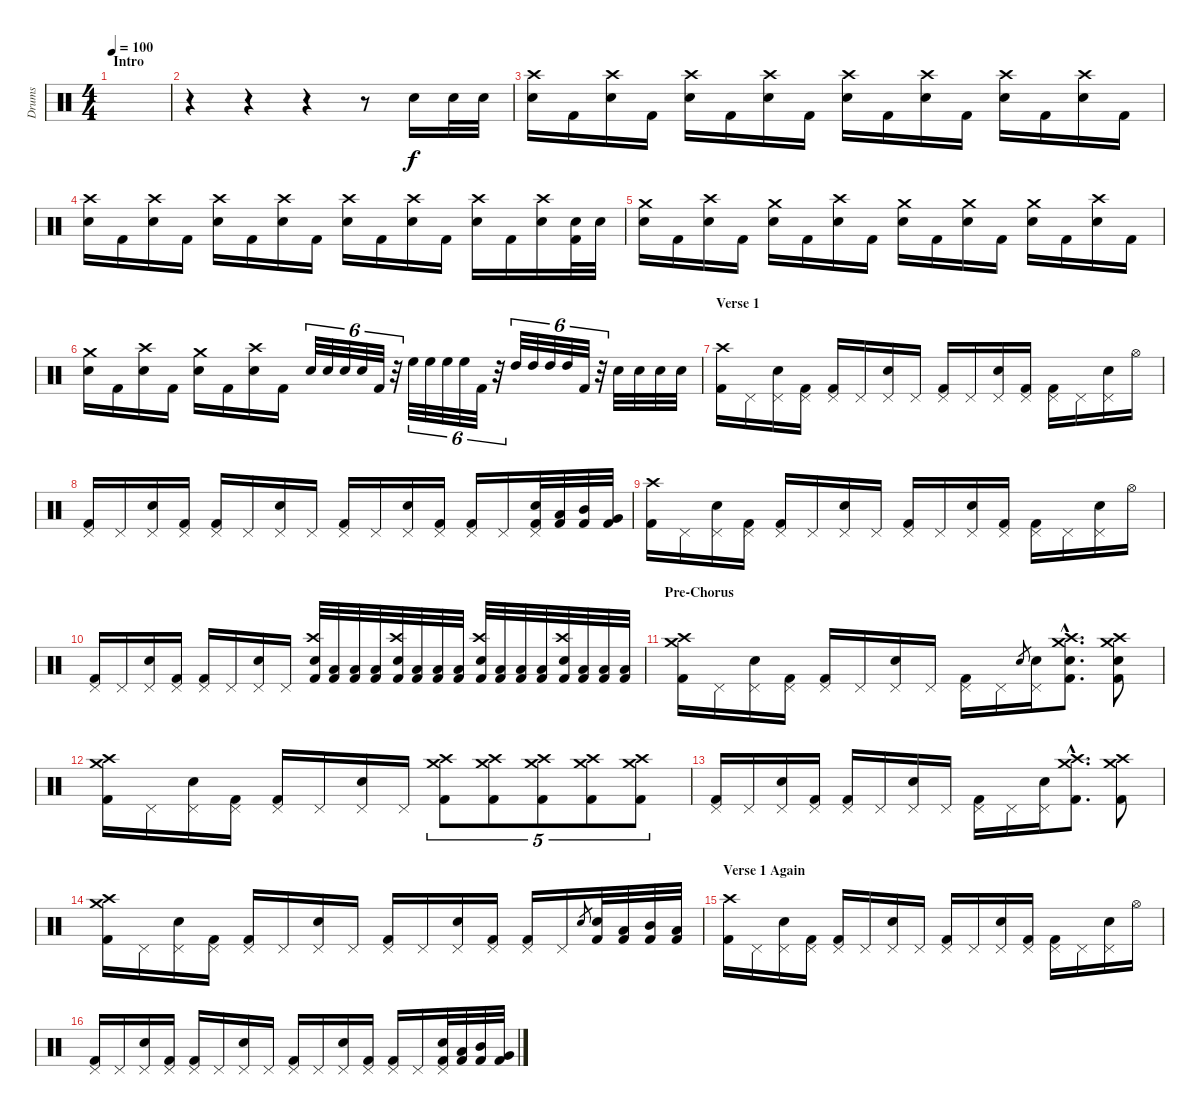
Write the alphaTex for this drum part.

\track ("Drums" "Drums") {instrument percussion}
\staff {score}
\articulation defaults
\ts (4 4)
\section ("" "Intro")
\tempo 100
\clef neutral
\ks c
|
r.4 r.4 r.4 r.8 "Electric Snare (hit)".16 "Electric Snare (hit)".32 "Electric Snare (hit)".32 |
("Crash high (hit)" "Electric Snare (hit)").16 "Kick (hit) 2".16 ("Crash high (hit)" "Electric Snare (hit)").16 "Kick (hit) 2".16 ("Crash high (hit)" "Electric Snare (hit)").16 "Kick (hit) 2".16 ("Crash high (hit)" "Electric Snare (hit)").16 "Kick (hit) 2".16 ("Crash high (hit)" "Electric Snare (hit)").16 "Kick (hit) 2".16 ("Crash high (hit)" "Electric Snare (hit)").16 "Kick (hit) 2".16 ("Crash high (hit)" "Electric Snare (hit)").16 "Kick (hit) 2".16 ("Crash high (hit)" "Electric Snare (hit)").16 "Kick (hit) 2".16 |
("Crash high (hit)" "Electric Snare (hit)").16 "Kick (hit) 2".16 ("Crash high (hit)" "Electric Snare (hit)").16 "Kick (hit) 2".16 ("Crash high (hit)" "Electric Snare (hit)").16 "Kick (hit) 2".16 ("Crash high (hit)" "Electric Snare (hit)").16 "Kick (hit) 2".16 ("Crash high (hit)" "Electric Snare (hit)").16 "Kick (hit) 2".16 ("Crash high (hit)" "Electric Snare (hit)").16 "Kick (hit) 2".16 ("Crash high (hit)" "Electric Snare (hit)").16 "Kick (hit) 2".16 ("Crash high (hit)" "Electric Snare (hit)").16 ("Electric Snare (hit)" "Kick (hit) 2").32 "Electric Snare (hit)".32 |
("Crash medium (hit)" "Electric Snare (hit)").16 "Kick (hit) 2".16 ("Crash high (hit)" "Electric Snare (hit)").16 "Kick (hit) 2".16 ("Crash medium (hit)" "Electric Snare (hit)").16 "Kick (hit) 2".16 ("Crash high (hit)" "Electric Snare (hit)").16 "Kick (hit) 2".16 ("Crash medium (hit)" "Electric Snare (hit)").16 "Kick (hit) 2".16 ("Crash medium (hit)" "Electric Snare (hit)").16 "Kick (hit) 2".16 ("Crash medium (hit)" "Electric Snare (hit)").16 "Kick (hit) 2".16 ("Crash high (hit)" "Electric Snare (hit)").16 "Kick (hit) 2".16 |
("Crash medium (hit)" "Electric Snare (hit)").16 "Kick (hit) 2".16 ("Crash high (hit)" "Electric Snare (hit)").16 "Kick (hit) 2".16 ("Crash medium (hit)" "Electric Snare (hit)").16 "Kick (hit) 2".16 ("Crash high (hit)" "Electric Snare (hit)").16 "Kick (hit) 2".16 "Electric Snare (hit)".32{tu (6 4)} "Electric Snare (hit)".32{tu (6 4)} "Electric Snare (hit)".32{tu (6 4)} "Electric Snare (hit)".32{tu (6 4)} "Kick (hit) 2".32{tu (6 4)} r.32{tu (6 4)} "High Floor Tom (hit)".32{tu (6 4)} "High Floor Tom (hit)".32{tu (6 4)} "High Floor Tom (hit)".32{tu (6 4)} "High Floor Tom (hit)".32{tu (6 4)} "Kick (hit) 2".32{tu (6 4)} r.32{tu (6 4)} "High Tom (hit)".32{tu (6 4)} "High Tom (hit)".32{tu (6 4)} "High Tom (hit)".32{tu (6 4)} "High Tom (hit)".32{tu (6 4)} "Kick (hit) 2".32{tu (6 4)} r.32{tu (6 4)} "Electric Snare (hit)".32 "Electric Snare (hit)".32 "Electric Snare (hit)".32 "Electric Snare (hit)".32 |
\section ("" "Verse 1")
("Crash high (hit)" "Kick (hit) 2").16 "Pedal Hi-Hat (hit)".16 ("Pedal Hi-Hat (hit)" "Electric Snare (hit)").16 ("Pedal Hi-Hat (hit)" "Kick (hit) 2").16 ("Pedal Hi-Hat (hit)" "Kick (hit) 2").16 "Pedal Hi-Hat (hit)".16 ("Pedal Hi-Hat (hit)" "Electric Snare (hit)").16 "Pedal Hi-Hat (hit)".16 ("Pedal Hi-Hat (hit)" "Kick (hit) 2").16 "Pedal Hi-Hat (hit)".16 ("Pedal Hi-Hat (hit)" "Electric Snare (hit)").16 ("Pedal Hi-Hat (hit)" "Kick (hit) 2").16 ("Pedal Hi-Hat (hit)" "Kick (hit) 2").16 "Pedal Hi-Hat (hit)".16 ("Pedal Hi-Hat (hit)" "Electric Snare (hit)").16 "Hi-Hat (open)".16 |
("Pedal Hi-Hat (hit)" "Kick (hit) 2").16 "Pedal Hi-Hat (hit)".16 ("Pedal Hi-Hat (hit)" "Electric Snare (hit)").16 ("Pedal Hi-Hat (hit)" "Kick (hit) 2").16 ("Pedal Hi-Hat (hit)" "Kick (hit) 2").16 "Pedal Hi-Hat (hit)".16 ("Pedal Hi-Hat (hit)" "Electric Snare (hit)").16 "Pedal Hi-Hat (hit)".16 ("Pedal Hi-Hat (hit)" "Kick (hit) 2").16 "Pedal Hi-Hat (hit)".16 ("Pedal Hi-Hat (hit)" "Electric Snare (hit)").16 ("Pedal Hi-Hat (hit)" "Kick (hit) 2").16 ("Pedal Hi-Hat (hit)" "Kick (hit) 2").16 "Pedal Hi-Hat (hit)".16 ("Pedal Hi-Hat (hit)" "Electric Snare (hit)" "Kick (hit) 2").32 ("Low Tom (hit)" "Kick (hit) 2").32 ("Mid Tom (hit)" "Kick (hit) 2").32 ("Very Low Tom (hit)" "Kick (hit) 2").32 |
("Crash high (hit)" "Kick (hit) 2").16 "Pedal Hi-Hat (hit)".16 ("Pedal Hi-Hat (hit)" "Electric Snare (hit)").16 ("Pedal Hi-Hat (hit)" "Kick (hit) 2").16 ("Pedal Hi-Hat (hit)" "Kick (hit) 2").16 "Pedal Hi-Hat (hit)".16 ("Pedal Hi-Hat (hit)" "Electric Snare (hit)").16 "Pedal Hi-Hat (hit)".16 ("Pedal Hi-Hat (hit)" "Kick (hit) 2").16 "Pedal Hi-Hat (hit)".16 ("Pedal Hi-Hat (hit)" "Electric Snare (hit)").16 ("Pedal Hi-Hat (hit)" "Kick (hit) 2").16 ("Pedal Hi-Hat (hit)" "Kick (hit) 2").16 "Pedal Hi-Hat (hit)".16 ("Pedal Hi-Hat (hit)" "Electric Snare (hit)").16 "Hi-Hat (open)".16 |
("Pedal Hi-Hat (hit)" "Kick (hit) 2").16 "Pedal Hi-Hat (hit)".16 ("Pedal Hi-Hat (hit)" "Electric Snare (hit)").16 ("Pedal Hi-Hat (hit)" "Kick (hit) 2").16 ("Pedal Hi-Hat (hit)" "Kick (hit) 2").16 "Pedal Hi-Hat (hit)".16 ("Pedal Hi-Hat (hit)" "Electric Snare (hit)").16 "Pedal Hi-Hat (hit)".16 ("Crash high (hit)" "Electric Snare (hit)" "Kick (hit) 2").32 ("Low Tom (hit)" "Kick (hit) 2").32 ("Low Tom (hit)" "Kick (hit) 2").32 ("Low Tom (hit)" "Kick (hit) 2").32 ("Crash high (hit)" "Electric Snare (hit)" "Kick (hit) 2").32 ("Low Tom (hit)" "Kick (hit) 2").32 ("Low Tom (hit)" "Kick (hit) 2").32 ("Low Tom (hit)" "Kick (hit) 2").32 ("Crash high (hit)" "Electric Snare (hit)" "Kick (hit) 2").32 ("Low Tom (hit)" "Kick (hit) 2").32 ("Low Tom (hit)" "Kick (hit) 2").32 ("Low Tom (hit)" "Kick (hit) 2").32 ("Crash high (hit)" "Electric Snare (hit)" "Kick (hit) 2").32 ("Low Tom (hit)" "Kick (hit) 2").32 ("Low Tom (hit)" "Kick (hit) 2").32 ("Low Tom (hit)" "Kick (hit) 2").32 |
\section ("" "Pre-Chorus")
("Crash high (hit)" "Crash medium (hit)" "Kick (hit) 2").16 "Pedal Hi-Hat (hit)".16 ("Pedal Hi-Hat (hit)" "Electric Snare (hit)").16 ("Pedal Hi-Hat (hit)" "Kick (hit) 2").16 ("Pedal Hi-Hat (hit)" "Kick (hit) 2").16 "Pedal Hi-Hat (hit)".16 ("Pedal Hi-Hat (hit)" "Electric Snare (hit)").16 "Pedal Hi-Hat (hit)".16 ("Pedal Hi-Hat (hit)" "Kick (hit) 2").16 "Pedal Hi-Hat (hit)".16 "Electric Snare (hit)".8{gr} ("Pedal Hi-Hat (hit)" "Electric Snare (hit)").16 ("Crash high (hit)"{hac} "Crash medium (hit)"{hac} "Electric Snare (hit)"{hac} "Kick (hit) 2"{hac}).8{d} ("Crash high (hit)" "Crash medium (hit)" "Electric Snare (hit)" "Kick (hit) 2").8 |
("Crash high (hit)" "Crash medium (hit)" "Kick (hit) 2").16 "Pedal Hi-Hat (hit)".16 ("Pedal Hi-Hat (hit)" "Electric Snare (hit)").16 ("Pedal Hi-Hat (hit)" "Kick (hit) 2").16 ("Pedal Hi-Hat (hit)" "Kick (hit) 2").16 "Pedal Hi-Hat (hit)".16 ("Pedal Hi-Hat (hit)" "Electric Snare (hit)").16 "Pedal Hi-Hat (hit)".16 ("Crash high (hit)" "Crash medium (hit)" "Kick (hit) 2").8{tu (5 4)} ("Crash high (hit)" "Crash medium (hit)" "Kick (hit) 2").8{tu (5 4)} ("Crash high (hit)" "Crash medium (hit)" "Kick (hit) 2").8{tu (5 4)} ("Crash high (hit)" "Crash medium (hit)" "Kick (hit) 2").8{tu (5 4)} ("Crash high (hit)" "Crash medium (hit)" "Kick (hit) 2").8{tu (5 4)} |
("Pedal Hi-Hat (hit)" "Kick (hit) 2").16 "Pedal Hi-Hat (hit)".16 ("Pedal Hi-Hat (hit)" "Electric Snare (hit)").16 ("Pedal Hi-Hat (hit)" "Kick (hit) 2").16 ("Pedal Hi-Hat (hit)" "Kick (hit) 2").16 "Pedal Hi-Hat (hit)".16 ("Pedal Hi-Hat (hit)" "Electric Snare (hit)").16 "Pedal Hi-Hat (hit)".16 ("Pedal Hi-Hat (hit)" "Kick (hit) 2").16 "Pedal Hi-Hat (hit)".16 ("Pedal Hi-Hat (hit)" "Electric Snare (hit)").16 ("Crash high (hit)"{hac} "Crash medium (hit)"{hac} "Kick (hit) 2"{hac}).8{d} ("Crash high (hit)" "Crash medium (hit)" "Kick (hit) 2").8 |
("Crash high (hit)" "Crash medium (hit)" "Kick (hit) 2").16 "Pedal Hi-Hat (hit)".16 ("Pedal Hi-Hat (hit)" "Electric Snare (hit)").16 ("Pedal Hi-Hat (hit)" "Kick (hit) 2").16 ("Pedal Hi-Hat (hit)" "Kick (hit) 2").16 "Pedal Hi-Hat (hit)".16 ("Pedal Hi-Hat (hit)" "Electric Snare (hit)").16 "Pedal Hi-Hat (hit)".16 ("Pedal Hi-Hat (hit)" "Kick (hit) 2").16 "Pedal Hi-Hat (hit)".16 ("Pedal Hi-Hat (hit)" "Electric Snare (hit)").16 ("Pedal Hi-Hat (hit)" "Kick (hit) 2").16 ("Pedal Hi-Hat (hit)" "Kick (hit) 2").16 "Pedal Hi-Hat (hit)".16 "Electric Snare (hit)".8{gr} ("Electric Snare (hit)" "Kick (hit) 2").32 ("Low Tom (hit)" "Kick (hit) 2").32 ("Mid Tom (hit)" "Kick (hit) 2").32 ("Low Floor Tom (hit)" "Kick (hit) 2").32 |
\section ("" "Verse 1 Again")
("Crash high (hit)" "Kick (hit) 2").16 "Pedal Hi-Hat (hit)".16 ("Pedal Hi-Hat (hit)" "Electric Snare (hit)").16 ("Pedal Hi-Hat (hit)" "Kick (hit) 2").16 ("Pedal Hi-Hat (hit)" "Kick (hit) 2").16 "Pedal Hi-Hat (hit)".16 ("Pedal Hi-Hat (hit)" "Electric Snare (hit)").16 "Pedal Hi-Hat (hit)".16 ("Pedal Hi-Hat (hit)" "Kick (hit) 2").16 "Pedal Hi-Hat (hit)".16 ("Pedal Hi-Hat (hit)" "Electric Snare (hit)").16 ("Pedal Hi-Hat (hit)" "Kick (hit) 2").16 ("Pedal Hi-Hat (hit)" "Kick (hit) 2").16 "Pedal Hi-Hat (hit)".16 ("Pedal Hi-Hat (hit)" "Electric Snare (hit)").16 "Hi-Hat (open)".16 |
("Pedal Hi-Hat (hit)" "Kick (hit) 2").16 "Pedal Hi-Hat (hit)".16 ("Pedal Hi-Hat (hit)" "Electric Snare (hit)").16 ("Pedal Hi-Hat (hit)" "Kick (hit) 2").16 ("Pedal Hi-Hat (hit)" "Kick (hit) 2").16 "Pedal Hi-Hat (hit)".16 ("Pedal Hi-Hat (hit)" "Electric Snare (hit)").16 "Pedal Hi-Hat (hit)".16 ("Pedal Hi-Hat (hit)" "Kick (hit) 2").16 "Pedal Hi-Hat (hit)".16 ("Pedal Hi-Hat (hit)" "Electric Snare (hit)").16 ("Pedal Hi-Hat (hit)" "Kick (hit) 2").16 ("Pedal Hi-Hat (hit)" "Kick (hit) 2").16 "Pedal Hi-Hat (hit)".16 ("Pedal Hi-Hat (hit)" "Electric Snare (hit)" "Kick (hit) 2").32 ("Low Tom (hit)" "Kick (hit) 2").32 ("Mid Tom (hit)" "Kick (hit) 2").32 ("Very Low Tom (hit)" "Kick (hit) 2").32
